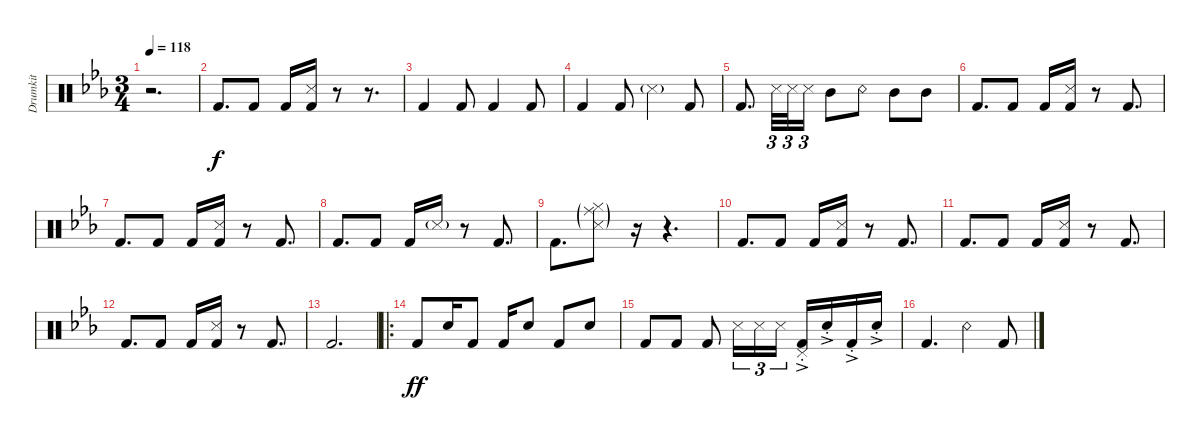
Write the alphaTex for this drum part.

\track ("Drumkit" "Drumkit") {instrument percussion}
\staff {score}
\articulation defaults
\ts (3 4)
\tempo 118
\clef neutral
\ks cminor
r.2{d dy f} |
"Kick (hit) 2".8{d} "Kick (hit) 2".8 "Kick (hit) 2".16 ("Kick (hit) 2" "Snare (side stick) 3").16 r.8 r.8{d} |
"Kick (hit) 2".4 "Kick (hit) 2".8 "Kick (hit) 2".4 "Kick (hit) 2".8 |
"Kick (hit) 2".4 "Kick (hit) 2".8 "Snare (side stick) 3"{g}.4 "Kick (hit) 2".8 |
"Kick (hit) 2".8{d} "Snare (side stick) 3".32{tu (3 2)} "Snare (side stick) 3".32{tu (3 2)} "Snare (side stick) 3".16{tu (3 2)} "Mid Tom (hit)".8 "Snare (rim shot)".8 "Mid Tom (hit)".8 "Mid Tom (hit)".8 |
"Kick (hit) 2".8{d} "Kick (hit) 2".8 "Kick (hit) 2".16 ("Kick (hit) 2" "Snare (side stick) 3").16 r.8 "Kick (hit) 2".8{d} |
"Kick (hit) 2".8{d} "Kick (hit) 2".8 "Kick (hit) 2".16 ("Kick (hit) 2" "Snare (side stick) 3").16 r.8 "Kick (hit) 2".8{d} |
"Kick (hit) 2".8{d} "Kick (hit) 2".8 "Kick (hit) 2".16 "Snare (side stick) 3"{g}.16 r.8 "Kick (hit) 2".8{d} |
"Kick (hit) 2".8{d} ("Snare (side stick) 3"{g} "Ride (middle)"{g} "Hi-Hat (closed)"{g}).8 r.16 r.4{d} |
"Kick (hit) 2".8{d} "Kick (hit) 2".8 "Kick (hit) 2".16 ("Kick (hit) 2" "Snare (side stick) 3").16 r.8 "Kick (hit) 2".8{d} |
"Kick (hit) 2".8{d} "Kick (hit) 2".8 "Kick (hit) 2".16 ("Kick (hit) 2" "Snare (side stick) 3").16 r.8 "Kick (hit) 2".8{d} |
"Kick (hit) 2".8{d} "Kick (hit) 2".8 "Kick (hit) 2".16 ("Kick (hit) 2" "Snare (side stick) 3").16 r.8 "Kick (hit) 2".8{d} |
"Kick (hit) 2".2{d} |
\ro "Kick (hit) 2".8{dy ff} "Snare (hit) 2".16 "Kick (hit) 2".8 "Kick (hit) 2".16 "Snare (hit) 2".8 "Kick (hit) 2".8 "Snare (hit) 2".8
|
"Kick (hit) 2".8 "Kick (hit) 2".8 "Kick (hit) 2".8 "Snare (side stick) 3".16{tu (3 2)} "Snare (side stick) 3".16{tu (3 2)} "Snare (side stick) 3".16{tu (3 2)} ("Pedal Hi-Hat (hit)"{ac st} "Kick (hit) 2"{ac st}).16 "Snare (hit) 2"{ac st}.16 "Kick (hit) 2"{ac st}.16 "Snare (hit) 2"{ac st}.16 |
"Kick (hit) 2".4{d} "Snare (rim shot)".4 "Kick (hit) 2".8
